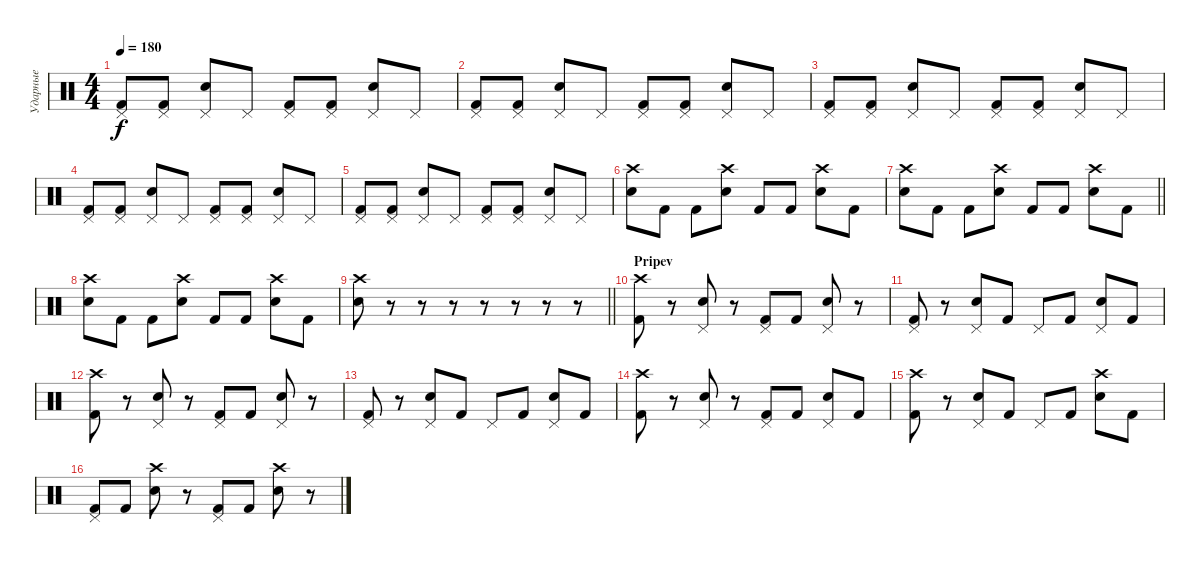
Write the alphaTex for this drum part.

\track ("Ударные" "Ударные") {instrument percussion}
\staff {score}
\articulation defaults
\ts (4 4)
\tempo 180
\clef neutral
\ks c
("Pedal Hi-Hat (hit)" "Kick (hit) 2").8{dy f} ("Pedal Hi-Hat (hit)" "Kick (hit) 2").8 ("Pedal Hi-Hat (hit)" "Electric Snare (hit)").8 "Pedal Hi-Hat (hit)".8 ("Pedal Hi-Hat (hit)" "Kick (hit) 2").8 ("Pedal Hi-Hat (hit)" "Kick (hit) 2").8 ("Pedal Hi-Hat (hit)" "Electric Snare (hit)").8 "Pedal Hi-Hat (hit)".8 |
("Pedal Hi-Hat (hit)" "Kick (hit) 2").8 ("Pedal Hi-Hat (hit)" "Kick (hit) 2").8 ("Pedal Hi-Hat (hit)" "Electric Snare (hit)").8 "Pedal Hi-Hat (hit)".8 ("Pedal Hi-Hat (hit)" "Kick (hit) 2").8 ("Pedal Hi-Hat (hit)" "Kick (hit) 2").8 ("Pedal Hi-Hat (hit)" "Electric Snare (hit)").8 "Pedal Hi-Hat (hit)".8 |
("Pedal Hi-Hat (hit)" "Kick (hit) 2").8 ("Pedal Hi-Hat (hit)" "Kick (hit) 2").8 ("Pedal Hi-Hat (hit)" "Electric Snare (hit)").8 "Pedal Hi-Hat (hit)".8 ("Pedal Hi-Hat (hit)" "Kick (hit) 2").8 ("Pedal Hi-Hat (hit)" "Kick (hit) 2").8 ("Pedal Hi-Hat (hit)" "Electric Snare (hit)").8 "Pedal Hi-Hat (hit)".8 |
("Pedal Hi-Hat (hit)" "Kick (hit) 2").8 ("Pedal Hi-Hat (hit)" "Kick (hit) 2").8 ("Pedal Hi-Hat (hit)" "Electric Snare (hit)").8 "Pedal Hi-Hat (hit)".8 ("Pedal Hi-Hat (hit)" "Kick (hit) 2").8 ("Pedal Hi-Hat (hit)" "Kick (hit) 2").8 ("Pedal Hi-Hat (hit)" "Electric Snare (hit)").8 "Pedal Hi-Hat (hit)".8 |
("Pedal Hi-Hat (hit)" "Kick (hit) 2").8 ("Pedal Hi-Hat (hit)" "Kick (hit) 2").8 ("Pedal Hi-Hat (hit)" "Electric Snare (hit)").8 "Pedal Hi-Hat (hit)".8 ("Pedal Hi-Hat (hit)" "Kick (hit) 2").8 ("Pedal Hi-Hat (hit)" "Kick (hit) 2").8 ("Pedal Hi-Hat (hit)" "Electric Snare (hit)").8 "Pedal Hi-Hat (hit)".8 |
("Crash high (hit)" "Electric Snare (hit)").8 "Kick (hit) 2".8 "Kick (hit) 2".8 ("Crash high (hit)" "Electric Snare (hit)").8 "Kick (hit) 2".8 "Kick (hit) 2".8 ("Crash high (hit)" "Electric Snare (hit)").8 "Kick (hit) 2".8 |
\barLineRight lightlight
("Crash high (hit)" "Electric Snare (hit)").8 "Kick (hit) 2".8 "Kick (hit) 2".8 ("Crash high (hit)" "Electric Snare (hit)").8 "Kick (hit) 2".8 "Kick (hit) 2".8 ("Crash high (hit)" "Electric Snare (hit)").8 "Kick (hit) 2".8 |
("Crash high (hit)" "Electric Snare (hit)").8 "Kick (hit) 2".8 "Kick (hit) 2".8 ("Crash high (hit)" "Electric Snare (hit)").8 "Kick (hit) 2".8 "Kick (hit) 2".8 ("Crash high (hit)" "Electric Snare (hit)").8 "Kick (hit) 2".8 |
\barLineRight lightlight
("Crash high (hit)" "Electric Snare (hit)").8 r.8 r.8 r.8 r.8 r.8 r.8 r.8 |
\section ("" "Pripev")
("Crash high (hit)" "Kick (hit) 2").8 r.8 ("Pedal Hi-Hat (hit)" "Electric Snare (hit)").8 r.8 ("Pedal Hi-Hat (hit)" "Kick (hit) 2").8 "Kick (hit) 2".8 ("Pedal Hi-Hat (hit)" "Electric Snare (hit)").8 r.8 |
("Pedal Hi-Hat (hit)" "Kick (hit) 2").8 r.8 ("Pedal Hi-Hat (hit)" "Electric Snare (hit)").8 "Kick (hit) 2".8 "Pedal Hi-Hat (hit)".8 "Kick (hit) 2".8 ("Pedal Hi-Hat (hit)" "Electric Snare (hit)").8 "Kick (hit) 2".8 |
("Crash high (hit)" "Kick (hit) 2").8 r.8 ("Pedal Hi-Hat (hit)" "Electric Snare (hit)").8 r.8 ("Pedal Hi-Hat (hit)" "Kick (hit) 2").8 "Kick (hit) 2".8 ("Pedal Hi-Hat (hit)" "Electric Snare (hit)").8 r.8 |
("Pedal Hi-Hat (hit)" "Kick (hit) 2").8 r.8 ("Pedal Hi-Hat (hit)" "Electric Snare (hit)").8 "Kick (hit) 2".8 "Pedal Hi-Hat (hit)".8 "Kick (hit) 2".8 ("Pedal Hi-Hat (hit)" "Electric Snare (hit)").8 "Kick (hit) 2".8 |
("Crash high (hit)" "Kick (hit) 2").8 r.8 ("Pedal Hi-Hat (hit)" "Electric Snare (hit)").8 r.8 ("Pedal Hi-Hat (hit)" "Kick (hit) 2").8 "Kick (hit) 2".8 ("Pedal Hi-Hat (hit)" "Electric Snare (hit)").8 "Kick (hit) 2".8 |
("Crash high (hit)" "Kick (hit) 2").8 r.8 ("Pedal Hi-Hat (hit)" "Electric Snare (hit)").8 "Kick (hit) 2".8 "Pedal Hi-Hat (hit)".8 "Kick (hit) 2".8 ("Crash high (hit)" "Electric Snare (hit)").8 "Kick (hit) 2".8 |
("Pedal Hi-Hat (hit)" "Kick (hit) 2").8 "Kick (hit) 2".8 ("Crash high (hit)" "Electric Snare (hit)").8 r.8 ("Pedal Hi-Hat (hit)" "Kick (hit) 2").8 "Kick (hit) 2".8 ("Crash high (hit)" "Electric Snare (hit)").8 r.8
